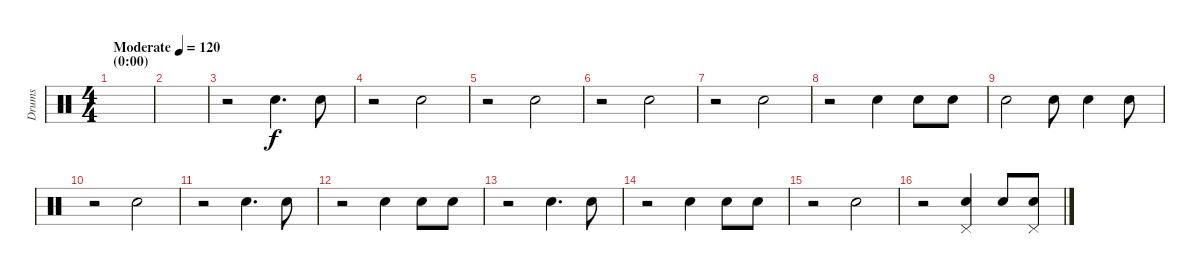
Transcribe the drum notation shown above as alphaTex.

\track ("Drums" "Drums") {instrument percussion}
\staff {score}
\articulation defaults
\ts (4 4)
\section ("" "(0:00)")
\tempo (120 "Moderate")
\clef neutral
\ks c
|
|
r.2 "Snare (hit) 2".4{d} "Snare (hit) 2".8 |
r.2 "Snare (hit) 2".2 |
r.2 "Snare (hit) 2".2 |
r.2 "Snare (hit) 2".2 |
r.2 "Snare (hit) 2".2 |
r.2 "Snare (hit) 2".4 "Snare (hit) 2".8 "Snare (hit) 2".8 |
"Snare (hit) 2".2 "Snare (hit) 2".8 "Snare (hit) 2".4 "Snare (hit) 2".8 |
r.2 "Snare (hit) 2".2 |
r.2 "Snare (hit) 2".4{d} "Snare (hit) 2".8 |
r.2 "Snare (hit) 2".4 "Snare (hit) 2".8 "Snare (hit) 2".8 |
r.2 "Snare (hit) 2".4{d} "Snare (hit) 2".8 |
r.2 "Snare (hit) 2".4 "Snare (hit) 2".8 "Snare (hit) 2".8 |
r.2 "Snare (hit) 2".2 |
r.2 ("Pedal Hi-Hat (hit)" "Snare (hit) 2").4 "Snare (hit) 2".8 ("Pedal Hi-Hat (hit)" "Snare (hit) 2").8
